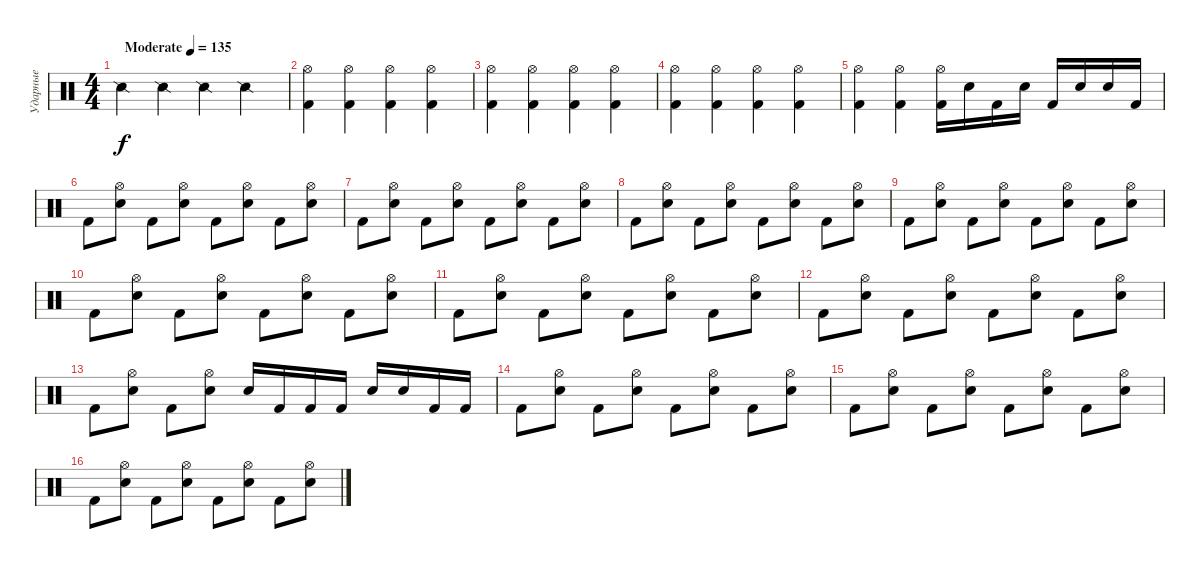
\track ("Ударные" "Ударные") {instrument percussion}
\staff {score}
\articulation defaults
\ts (4 4)
\tempo (135 "Moderate")
\clef neutral
\ks c "Snare (side stick) 2".4{dy f} "Snare (side stick) 2".4 "Snare (side stick) 2".4 "Snare (side stick) 2".4
|
("Hi-Hat (open)" "Kick (hit) 2").4 ("Hi-Hat (open)" "Kick (hit) 2").4 ("Hi-Hat (open)" "Kick (hit) 2").4 ("Hi-Hat (open)" "Kick (hit) 2").4 |
("Hi-Hat (open)" "Kick (hit) 2").4 ("Hi-Hat (open)" "Kick (hit) 2").4 ("Hi-Hat (open)" "Kick (hit) 2").4 ("Hi-Hat (open)" "Kick (hit) 2").4 |
("Hi-Hat (open)" "Kick (hit) 2").4 ("Hi-Hat (open)" "Kick (hit) 2").4 ("Hi-Hat (open)" "Kick (hit) 2").4 ("Hi-Hat (open)" "Kick (hit) 2").4 |
("Hi-Hat (open)" "Kick (hit) 2").4 ("Hi-Hat (open)" "Kick (hit) 2").4 ("Hi-Hat (open)" "Kick (hit) 2").16 "Snare (hit) 2".16 "Kick (hit) 2".16 "Snare (hit) 2".16 "Kick (hit) 2".16 "Snare (hit) 2".16 "Snare (hit) 2".16 "Kick (hit) 2".16 |
"Kick (hit) 2".8 ("Snare (hit) 2" "Hi-Hat (open)").8 "Kick (hit) 2".8 ("Snare (hit) 2" "Hi-Hat (open)").8 "Kick (hit) 2".8 ("Snare (hit) 2" "Hi-Hat (open)").8 "Kick (hit) 2".8 ("Snare (hit) 2" "Hi-Hat (open)").8 |
"Kick (hit) 2".8 ("Snare (hit) 2" "Hi-Hat (open)").8 "Kick (hit) 2".8 ("Snare (hit) 2" "Hi-Hat (open)").8 "Kick (hit) 2".8 ("Snare (hit) 2" "Hi-Hat (open)").8 "Kick (hit) 2".8 ("Snare (hit) 2" "Hi-Hat (open)").8 |
"Kick (hit) 2".8 ("Snare (hit) 2" "Hi-Hat (open)").8 "Kick (hit) 2".8 ("Snare (hit) 2" "Hi-Hat (open)").8 "Kick (hit) 2".8 ("Snare (hit) 2" "Hi-Hat (open)").8 "Kick (hit) 2".8 ("Snare (hit) 2" "Hi-Hat (open)").8 |
"Kick (hit) 2".8 ("Snare (hit) 2" "Hi-Hat (open)").8 "Kick (hit) 2".8 ("Snare (hit) 2" "Hi-Hat (open)").8 "Kick (hit) 2".8 ("Snare (hit) 2" "Hi-Hat (open)").8 "Kick (hit) 2".8 ("Snare (hit) 2" "Hi-Hat (open)").8 |
"Kick (hit) 2".8 ("Snare (hit) 2" "Hi-Hat (open)").8 "Kick (hit) 2".8 ("Snare (hit) 2" "Hi-Hat (open)").8 "Kick (hit) 2".8 ("Snare (hit) 2" "Hi-Hat (open)").8 "Kick (hit) 2".8 ("Snare (hit) 2" "Hi-Hat (open)").8 |
"Kick (hit) 2".8 ("Snare (hit) 2" "Hi-Hat (open)").8 "Kick (hit) 2".8 ("Snare (hit) 2" "Hi-Hat (open)").8 "Kick (hit) 2".8 ("Snare (hit) 2" "Hi-Hat (open)").8 "Kick (hit) 2".8 ("Snare (hit) 2" "Hi-Hat (open)").8 |
"Kick (hit) 2".8 ("Snare (hit) 2" "Hi-Hat (open)").8 "Kick (hit) 2".8 ("Snare (hit) 2" "Hi-Hat (open)").8 "Kick (hit) 2".8 ("Snare (hit) 2" "Hi-Hat (open)").8 "Kick (hit) 2".8 ("Snare (hit) 2" "Hi-Hat (open)").8 |
"Kick (hit) 2".8 ("Snare (hit) 2" "Hi-Hat (open)").8 "Kick (hit) 2".8 ("Snare (hit) 2" "Hi-Hat (open)").8 "Snare (hit) 2".16 "Kick (hit) 2".16 "Kick (hit) 2".16 "Kick (hit) 2".16 "Snare (hit) 2".16 "Snare (hit) 2".16 "Kick (hit) 2".16 "Kick (hit) 2".16 |
"Kick (hit) 2".8 ("Snare (hit) 2" "Hi-Hat (open)").8 "Kick (hit) 2".8 ("Snare (hit) 2" "Hi-Hat (open)").8 "Kick (hit) 2".8 ("Snare (hit) 2" "Hi-Hat (open)").8 "Kick (hit) 2".8 ("Snare (hit) 2" "Hi-Hat (open)").8 |
"Kick (hit) 2".8 ("Snare (hit) 2" "Hi-Hat (open)").8 "Kick (hit) 2".8 ("Snare (hit) 2" "Hi-Hat (open)").8 "Kick (hit) 2".8 ("Snare (hit) 2" "Hi-Hat (open)").8 "Kick (hit) 2".8 ("Snare (hit) 2" "Hi-Hat (open)").8 |
"Kick (hit) 2".8 ("Snare (hit) 2" "Hi-Hat (open)").8 "Kick (hit) 2".8 ("Snare (hit) 2" "Hi-Hat (open)").8 "Kick (hit) 2".8 ("Snare (hit) 2" "Hi-Hat (open)").8 "Kick (hit) 2".8 ("Snare (hit) 2" "Hi-Hat (open)").8
